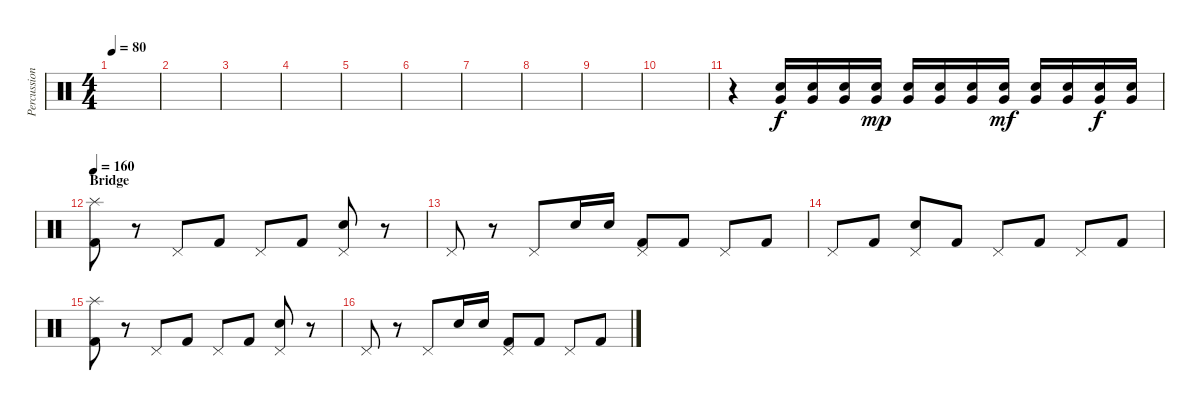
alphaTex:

\track ("Percussion" "Percussion") {instrument percussion}
\staff {score}
\articulation defaults
\ts (4 4)
\tempo 80
\clef neutral
\ks c
|
|
|
|
|
|
|
|
|
|
r.4 ("Electric Snare (hit)" "Very Low Tom (hit)").16 ("Electric Snare (hit)" "Very Low Tom (hit)").16 ("Electric Snare (hit)" "Very Low Tom (hit)").16 ("Electric Snare (hit)" "Very Low Tom (hit)").16{dy mp} ("Electric Snare (hit)" "Very Low Tom (hit)").16 ("Electric Snare (hit)" "Very Low Tom (hit)").16 ("Electric Snare (hit)" "Very Low Tom (hit)").16 ("Electric Snare (hit)" "Very Low Tom (hit)").16{dy mf} ("Electric Snare (hit)" "Very Low Tom (hit)").16 ("Electric Snare (hit)" "Very Low Tom (hit)").16 ("Electric Snare (hit)" "Very Low Tom (hit)").16{dy f} ("Electric Snare (hit)" "Very Low Tom (hit)").16 |
\section ("" "Bridge")
\tempo 160
("Splash (hit)" "Kick (hit) 2").8 r.8 "Pedal Hi-Hat (hit)".8 "Kick (hit) 2".8 "Pedal Hi-Hat (hit)".8 "Kick (hit) 2".8 ("Pedal Hi-Hat (hit)" "Electric Snare (hit)").8 r.8 |
"Pedal Hi-Hat (hit)".8 r.8 "Pedal Hi-Hat (hit)".8 "Electric Snare (hit)".16 "Electric Snare (hit)".16 ("Pedal Hi-Hat (hit)" "Kick (hit) 2").8 "Kick (hit) 2".8 "Pedal Hi-Hat (hit)".8 "Kick (hit) 2".8 |
"Pedal Hi-Hat (hit)".8 "Kick (hit) 2".8 ("Pedal Hi-Hat (hit)" "Electric Snare (hit)").8 "Kick (hit) 2".8 "Pedal Hi-Hat (hit)".8 "Kick (hit) 2".8 "Pedal Hi-Hat (hit)".8 "Kick (hit) 2".8 |
("Splash (hit)" "Kick (hit) 2").8 r.8 "Pedal Hi-Hat (hit)".8 "Kick (hit) 2".8 "Pedal Hi-Hat (hit)".8 "Kick (hit) 2".8 ("Pedal Hi-Hat (hit)" "Electric Snare (hit)").8 r.8 |
"Pedal Hi-Hat (hit)".8 r.8 "Pedal Hi-Hat (hit)".8 "Electric Snare (hit)".16 "Electric Snare (hit)".16 ("Pedal Hi-Hat (hit)" "Kick (hit) 2").8 "Kick (hit) 2".8 "Pedal Hi-Hat (hit)".8 "Kick (hit) 2".8
